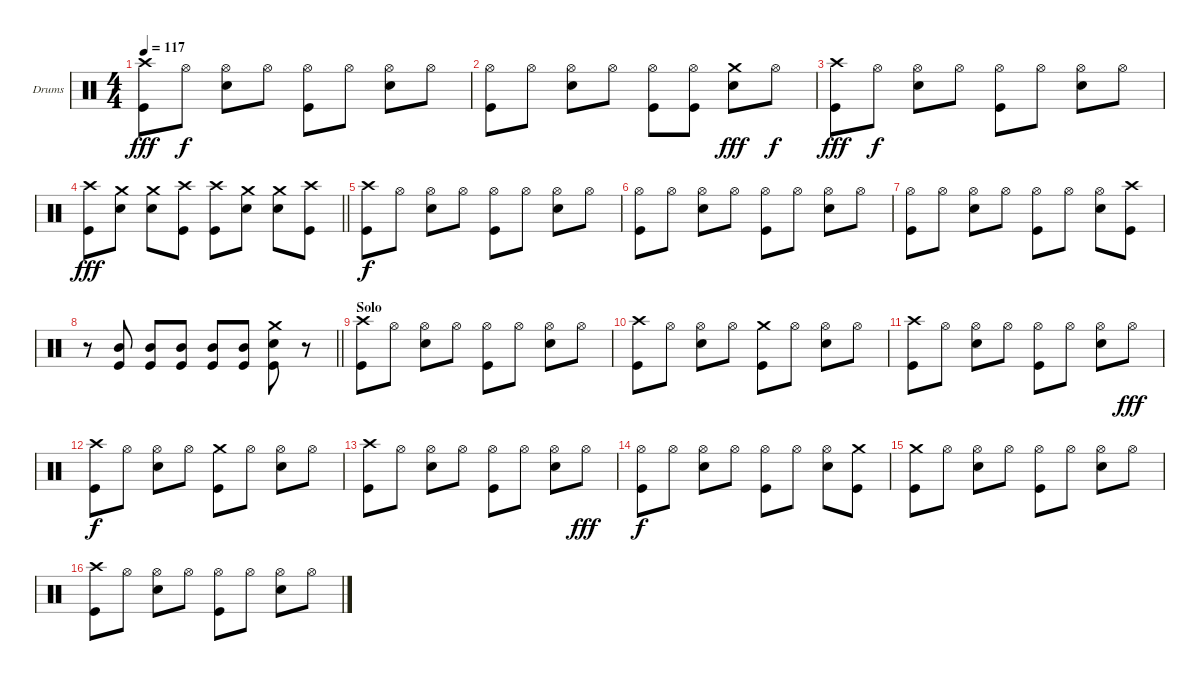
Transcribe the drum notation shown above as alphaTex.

\bracketExtendMode groupsimilarinstruments
\firstSystemTrackNameOrientation horizontal
\otherSystemsTrackNameOrientation horizontal
\track ("Drumkit" "Drums") {instrument percussion}
\staff {score}
\articulation defaults
\ts (4 4)
\tempo 117
\clef neutral
\ks c
("Crash high (hit)" "Kick (hit)").8{dy fff} "Hi-Hat (open)".8{dy f} ("Hi-Hat (open)" "Snare (hit) 2").8 "Hi-Hat (open)".8 ("Hi-Hat (open)" "Kick (hit)").8 "Hi-Hat (open)".8 ("Hi-Hat (open)" "Snare (hit) 2").8 "Hi-Hat (open)".8 |
("Hi-Hat (open)" "Kick (hit)").8 "Hi-Hat (open)".8 ("Hi-Hat (open)" "Snare (hit) 2").8 "Hi-Hat (open)".8 ("Hi-Hat (open)" "Kick (hit)").8 ("Hi-Hat (open)" "Kick (hit)").8 ("Crash medium (hit)" "Snare (hit) 2").8{dy fff} "Hi-Hat (open)".8{dy f} |
("Crash high (hit)" "Kick (hit)").8{dy fff} "Hi-Hat (open)".8{dy f} ("Hi-Hat (open)" "Snare (hit) 2").8 "Hi-Hat (open)".8 ("Hi-Hat (open)" "Kick (hit)").8 "Hi-Hat (open)".8 ("Hi-Hat (open)" "Snare (hit) 2").8 "Hi-Hat (open)".8 |
\barLineRight lightlight
("Crash high (hit)" "Kick (hit)").8{dy fff} ("Crash medium (hit)" "Snare (hit) 2").8 ("Crash medium (hit)" "Snare (hit) 2").8 ("Crash high (hit)" "Kick (hit)").8 ("Crash high (hit)" "Kick (hit)").8 ("Crash medium (hit)" "Snare (hit) 2").8 ("Crash medium (hit)" "Snare (hit) 2").8 ("Crash high (hit)" "Kick (hit)").8 |
("Crash high (hit)" "Kick (hit)").8{dy f} "Hi-Hat (open)".8 ("Hi-Hat (open)" "Snare (hit) 2").8 "Hi-Hat (open)".8 ("Hi-Hat (open)" "Kick (hit)").8 "Hi-Hat (open)".8 ("Hi-Hat (open)" "Snare (hit) 2").8 "Hi-Hat (open)".8 |
("Hi-Hat (open)" "Kick (hit)").8 "Hi-Hat (open)".8 ("Hi-Hat (open)" "Snare (hit) 2").8 "Hi-Hat (open)".8 ("Hi-Hat (open)" "Kick (hit)").8 "Hi-Hat (open)".8 ("Hi-Hat (open)" "Snare (hit) 2").8 "Hi-Hat (open)".8 |
("Hi-Hat (open)" "Kick (hit)").8 "Hi-Hat (open)".8 ("Hi-Hat (open)" "Snare (hit) 2").8 "Hi-Hat (open)".8 ("Hi-Hat (open)" "Kick (hit)").8 "Hi-Hat (open)".8 ("Hi-Hat (open)" "Snare (hit) 2").8 ("Crash high (hit)" "Kick (hit)").8 |
\barLineRight lightlight
r.8 ("Kick (hit)" "Mid Tom (hit)").8 ("Kick (hit)" "Mid Tom (hit)").8 ("Kick (hit)" "Mid Tom (hit)").8 ("Kick (hit)" "Mid Tom (hit)").8 ("Kick (hit)" "Mid Tom (hit)").8 ("Crash medium (hit)" "Kick (hit)" "Snare (hit) 2").8 r.8 |
\section ("" "Solo")
("Crash high (hit)" "Kick (hit)").8 "Hi-Hat (open)".8 ("Hi-Hat (open)" "Snare (hit) 2").8 "Hi-Hat (open)".8 ("Hi-Hat (open)" "Kick (hit)").8 "Hi-Hat (open)".8 ("Hi-Hat (open)" "Snare (hit) 2").8 "Hi-Hat (open)".8 |
("Crash high (hit)" "Kick (hit)").8 "Hi-Hat (open)".8 ("Hi-Hat (open)" "Snare (hit) 2").8 "Hi-Hat (open)".8 ("Crash medium (hit)" "Kick (hit)").8 "Hi-Hat (open)".8 ("Hi-Hat (open)" "Snare (hit) 2").8 "Hi-Hat (open)".8 |
("Crash high (hit)" "Kick (hit)").8 "Hi-Hat (open)".8 ("Hi-Hat (open)" "Snare (hit) 2").8 "Hi-Hat (open)".8 ("Hi-Hat (open)" "Kick (hit)").8 "Hi-Hat (open)".8 ("Hi-Hat (open)" "Snare (hit) 2").8 "Hi-Hat (open)".8{dy fff} |
("Crash high (hit)" "Kick (hit)").8{dy f} "Hi-Hat (open)".8 ("Hi-Hat (open)" "Snare (hit) 2").8 "Hi-Hat (open)".8 ("Crash medium (hit)" "Kick (hit)").8 "Hi-Hat (open)".8 ("Hi-Hat (open)" "Snare (hit) 2").8 "Hi-Hat (open)".8 |
("Crash high (hit)" "Kick (hit)").8 "Hi-Hat (open)".8 ("Hi-Hat (open)" "Snare (hit) 2").8 "Hi-Hat (open)".8 ("Hi-Hat (open)" "Kick (hit)").8 "Hi-Hat (open)".8 ("Hi-Hat (open)" "Snare (hit) 2").8 "Hi-Hat (open)".8{dy fff} |
("Hi-Hat (open)" "Kick (hit)").8{dy f} "Hi-Hat (open)".8 ("Hi-Hat (open)" "Snare (hit) 2").8 "Hi-Hat (open)".8 ("Hi-Hat (open)" "Kick (hit)").8 "Hi-Hat (open)".8 ("Hi-Hat (open)" "Snare (hit) 2").8 ("Crash medium (hit)" "Kick (hit)").8 |
("Crash medium (hit)" "Kick (hit)").8 "Hi-Hat (open)".8 ("Hi-Hat (open)" "Snare (hit) 2").8 "Hi-Hat (open)".8 ("Hi-Hat (open)" "Kick (hit)").8 "Hi-Hat (open)".8 ("Hi-Hat (open)" "Snare (hit) 2").8 "Hi-Hat (open)".8 |
("Crash high (hit)" "Kick (hit)").8 "Hi-Hat (open)".8 ("Hi-Hat (open)" "Snare (hit) 2").8 "Hi-Hat (open)".8 ("Hi-Hat (open)" "Kick (hit)").8 "Hi-Hat (open)".8 ("Hi-Hat (open)" "Snare (hit) 2").8 "Hi-Hat (open)".8
